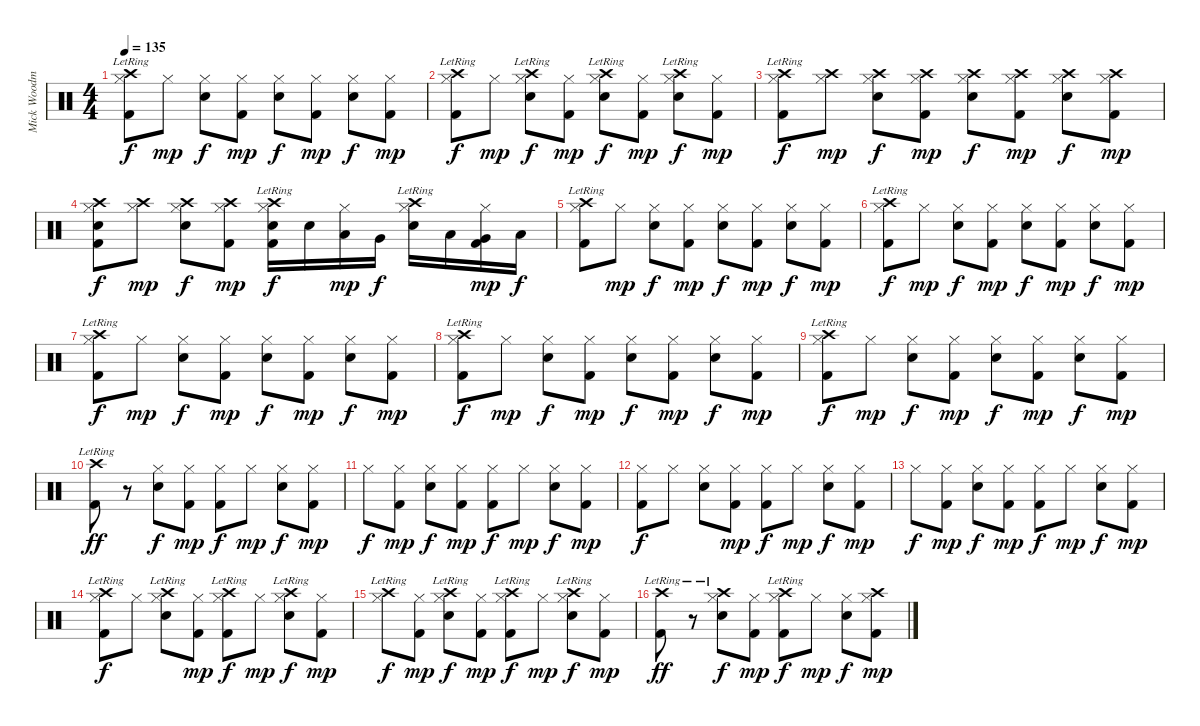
\track ("Mick Woodmansey - Drums" "Mick Woodm") {instrument percussion}
\staff {score}
\articulation defaults
\ts (4 4)
\tempo 135
\clef neutral
\ks c
("Crash high (hit)"{lr} "Hi-Hat (closed)" "Kick (hit) 2").8{dy f} "Hi-Hat (closed)".8{dy mp} ("Hi-Hat (closed)" "Electric Snare (hit)").8{dy f} ("Hi-Hat (closed)" "Kick (hit) 2").8{dy mp} ("Hi-Hat (closed)" "Electric Snare (hit)").8{dy f} ("Hi-Hat (closed)" "Kick (hit) 2").8{dy mp} ("Hi-Hat (closed)" "Electric Snare (hit)").8{dy f} ("Hi-Hat (closed)" "Kick (hit) 2").8{dy mp} |
("Crash high (hit)"{lr} "Hi-Hat (closed)" "Kick (hit) 2").8{dy f} "Hi-Hat (closed)".8{dy mp} ("Crash high (hit)"{lr} "Hi-Hat (closed)" "Electric Snare (hit)").8{dy f} ("Hi-Hat (closed)" "Kick (hit) 2").8{dy mp} ("Crash high (hit)"{lr} "Hi-Hat (closed)" "Electric Snare (hit)").8{dy f} ("Hi-Hat (closed)" "Kick (hit) 2").8{dy mp} ("Crash high (hit)"{lr} "Hi-Hat (closed)" "Electric Snare (hit)").8{dy f} ("Hi-Hat (closed)" "Kick (hit) 2").8{dy mp} |
("Crash high (hit)"{lr} "Hi-Hat (closed)" "Kick (hit) 2").8{dy f} ("Crash high (hit)" "Hi-Hat (closed)").8{dy mp} ("Crash high (hit)" "Hi-Hat (closed)" "Electric Snare (hit)").8{dy f} ("Crash high (hit)" "Hi-Hat (closed)" "Kick (hit) 2").8{dy mp} ("Crash high (hit)" "Hi-Hat (closed)" "Electric Snare (hit)").8{dy f} ("Crash high (hit)" "Hi-Hat (closed)" "Kick (hit) 2").8{dy mp} ("Crash high (hit)" "Hi-Hat (closed)" "Electric Snare (hit)").8{dy f} ("Crash high (hit)" "Hi-Hat (closed)" "Kick (hit) 2").8{dy mp} |
("Crash high (hit)" "Hi-Hat (closed)" "Electric Snare (hit)" "Kick (hit) 2").8{dy f} ("Crash high (hit)" "Hi-Hat (closed)").8{dy mp} ("Crash high (hit)" "Hi-Hat (closed)" "Electric Snare (hit)").8{dy f} ("Crash high (hit)" "Hi-Hat (closed)" "Kick (hit) 2").8{dy mp} ("Crash high (hit)"{lr} "Hi-Hat (closed)" "Electric Snare (hit)" "Kick (hit) 2").16{dy f} "Electric Snare (hit)".16 ("Hi-Hat (closed)" "Low Tom (hit)").16{dy mp} "Very Low Tom (hit)".16{dy f} ("Crash high (hit)"{lr} "Hi-Hat (closed)" "Electric Snare (hit)").16 "Low Tom (hit)".16 ("Hi-Hat (closed)" "Very Low Tom (hit)" "Kick (hit) 2").16{dy mp} "Low Floor Tom (hit)".16{dy f} |
("Crash high (hit)"{lr} "Hi-Hat (closed)" "Kick (hit) 2").8 "Hi-Hat (closed)".8{dy mp} ("Hi-Hat (closed)" "Electric Snare (hit)").8{dy f} ("Hi-Hat (closed)" "Kick (hit) 2").8{dy mp} ("Hi-Hat (closed)" "Electric Snare (hit)").8{dy f} ("Hi-Hat (closed)" "Kick (hit) 2").8{dy mp} ("Hi-Hat (closed)" "Electric Snare (hit)").8{dy f} ("Hi-Hat (closed)" "Kick (hit) 2").8{dy mp} |
("Crash high (hit)"{lr} "Hi-Hat (closed)" "Kick (hit) 2").8{dy f} "Hi-Hat (closed)".8{dy mp} ("Hi-Hat (closed)" "Electric Snare (hit)").8{dy f} ("Hi-Hat (closed)" "Kick (hit) 2").8{dy mp} ("Hi-Hat (closed)" "Electric Snare (hit)").8{dy f} ("Hi-Hat (closed)" "Kick (hit) 2").8{dy mp} ("Hi-Hat (closed)" "Electric Snare (hit)").8{dy f} ("Hi-Hat (closed)" "Kick (hit) 2").8{dy mp} |
("Crash high (hit)"{lr} "Hi-Hat (closed)" "Kick (hit) 2").8{dy f} "Hi-Hat (closed)".8{dy mp} ("Hi-Hat (closed)" "Electric Snare (hit)").8{dy f} ("Hi-Hat (closed)" "Kick (hit) 2").8{dy mp} ("Hi-Hat (closed)" "Electric Snare (hit)").8{dy f} ("Hi-Hat (closed)" "Kick (hit) 2").8{dy mp} ("Hi-Hat (closed)" "Electric Snare (hit)").8{dy f} ("Hi-Hat (closed)" "Kick (hit) 2").8{dy mp} |
("Crash high (hit)"{lr} "Hi-Hat (closed)" "Kick (hit) 2").8{dy f} "Hi-Hat (closed)".8{dy mp} ("Hi-Hat (closed)" "Electric Snare (hit)").8{dy f} ("Hi-Hat (closed)" "Kick (hit) 2").8{dy mp} ("Hi-Hat (closed)" "Electric Snare (hit)").8{dy f} ("Hi-Hat (closed)" "Kick (hit) 2").8{dy mp} ("Hi-Hat (closed)" "Electric Snare (hit)").8{dy f} ("Hi-Hat (closed)" "Kick (hit) 2").8{dy mp} |
("Crash high (hit)"{lr} "Hi-Hat (closed)" "Kick (hit) 2").8{dy f} "Hi-Hat (closed)".8{dy mp} ("Hi-Hat (closed)" "Electric Snare (hit)").8{dy f} ("Hi-Hat (closed)" "Kick (hit) 2").8{dy mp} ("Hi-Hat (closed)" "Electric Snare (hit)").8{dy f} ("Hi-Hat (closed)" "Kick (hit) 2").8{dy mp} ("Hi-Hat (closed)" "Electric Snare (hit)").8{dy f} ("Hi-Hat (closed)" "Kick (hit) 2").8{dy mp} |
("Crash high (hit)"{lr} "Kick (hit) 2").8{dy ff} r.8 ("Hi-Hat (closed)" "Electric Snare (hit)").8{dy f} ("Hi-Hat (closed)" "Kick (hit) 2").8{dy mp} ("Hi-Hat (closed)" "Kick (hit) 2").8{dy f} "Hi-Hat (closed)".8{dy mp} ("Hi-Hat (closed)" "Electric Snare (hit)").8{dy f} ("Hi-Hat (closed)" "Kick (hit) 2").8{dy mp} |
"Hi-Hat (closed)".8{dy f} ("Hi-Hat (closed)" "Kick (hit) 2").8{dy mp} ("Hi-Hat (closed)" "Electric Snare (hit)").8{dy f} ("Hi-Hat (closed)" "Kick (hit) 2").8{dy mp} ("Hi-Hat (closed)" "Kick (hit) 2").8{dy f} "Hi-Hat (closed)".8{dy mp} ("Hi-Hat (closed)" "Electric Snare (hit)").8{dy f} ("Hi-Hat (closed)" "Kick (hit) 2").8{dy mp} |
("Hi-Hat (closed)" "Kick (hit) 2").8{dy f} "Hi-Hat (closed)".8 ("Hi-Hat (closed)" "Electric Snare (hit)").8 ("Hi-Hat (closed)" "Kick (hit) 2").8{dy mp} ("Hi-Hat (closed)" "Kick (hit) 2").8{dy f} "Hi-Hat (closed)".8{dy mp} ("Hi-Hat (closed)" "Electric Snare (hit)").8{dy f} ("Hi-Hat (closed)" "Kick (hit) 2").8{dy mp} |
"Hi-Hat (closed)".8{dy f} ("Hi-Hat (closed)" "Kick (hit) 2").8{dy mp} ("Hi-Hat (closed)" "Electric Snare (hit)").8{dy f} ("Hi-Hat (closed)" "Kick (hit) 2").8{dy mp} ("Hi-Hat (closed)" "Kick (hit) 2").8{dy f} "Hi-Hat (closed)".8{dy mp} ("Hi-Hat (closed)" "Electric Snare (hit)").8{dy f} ("Hi-Hat (closed)" "Kick (hit) 2").8{dy mp} |
("Crash high (hit)"{lr} "Hi-Hat (closed)" "Kick (hit) 2").8{dy f} "Hi-Hat (closed)".8 ("Crash high (hit)"{lr} "Hi-Hat (closed)" "Electric Snare (hit)").8 ("Hi-Hat (closed)" "Kick (hit) 2").8{dy mp} ("Crash high (hit)"{lr} "Hi-Hat (closed)" "Kick (hit) 2").8{dy f} "Hi-Hat (closed)".8{dy mp} ("Crash high (hit)"{lr} "Hi-Hat (closed)" "Electric Snare (hit)").8{dy f} ("Hi-Hat (closed)" "Kick (hit) 2").8{dy mp} |
("Crash high (hit)"{lr} "Hi-Hat (closed)").8{dy f} ("Hi-Hat (closed)" "Kick (hit) 2").8{dy mp} ("Crash high (hit)"{lr} "Hi-Hat (closed)" "Electric Snare (hit)").8{dy f} ("Hi-Hat (closed)" "Kick (hit) 2").8{dy mp} ("Crash high (hit)"{lr} "Hi-Hat (closed)" "Kick (hit) 2").8{dy f} "Hi-Hat (closed)".8{dy mp} ("Crash high (hit)"{lr} "Hi-Hat (closed)" "Electric Snare (hit)").8{dy f} ("Hi-Hat (closed)" "Kick (hit) 2").8{dy mp} |
("Crash high (hit)"{lr} "Kick (hit) 2").8{dy ff} r.8 ("Crash high (hit)"{lr} "Hi-Hat (closed)" "Electric Snare (hit)").8{dy f} ("Hi-Hat (closed)" "Kick (hit) 2").8{dy mp} ("Crash high (hit)"{lr} "Hi-Hat (closed)" "Kick (hit) 2").8{dy f} "Hi-Hat (closed)".8{dy mp} ("Hi-Hat (closed)" "Electric Snare (hit)").8{dy f} ("Crash high (hit)" "Hi-Hat (closed)" "Kick (hit) 2").8{dy mp}
